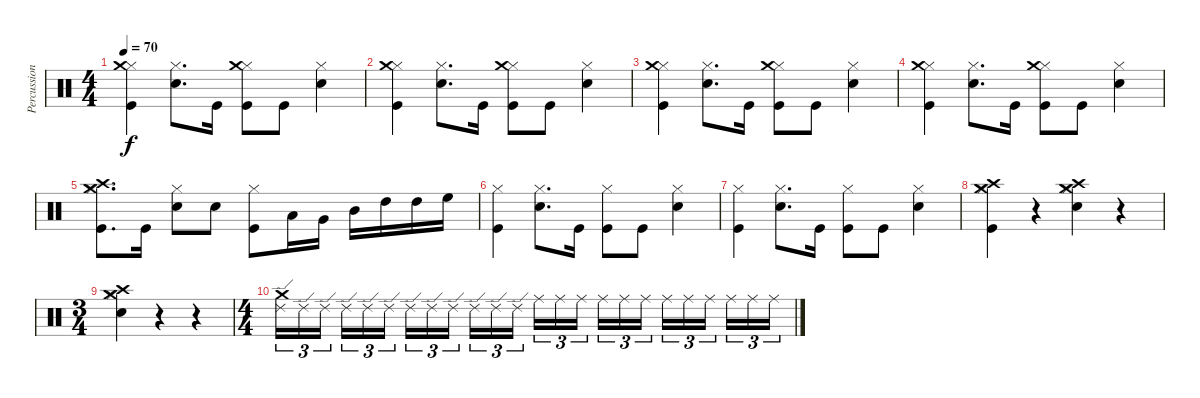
\track ("Percussion" "Percussion") {instrument percussion}
\staff {score}
\articulation defaults
\ts (4 4)
\tempo 70
\clef neutral
\ks c
("Kick (hit)" "Hi-Hat (closed)" "Crash medium (hit)").4{dy f} ("Electric Snare (hit)" "Hi-Hat (closed)").8{d} "Kick (hit)".16 ("Kick (hit)" "Hi-Hat (closed)" "Crash medium (hit)").8 "Kick (hit)".8 ("Electric Snare (hit)" "Hi-Hat (closed)").4 |
("Kick (hit)" "Hi-Hat (closed)" "Crash medium (hit)").4 ("Electric Snare (hit)" "Hi-Hat (closed)").8{d} "Kick (hit)".16 ("Kick (hit)" "Hi-Hat (closed)" "Crash medium (hit)").8 "Kick (hit)".8 ("Electric Snare (hit)" "Hi-Hat (closed)").4 |
("Kick (hit)" "Hi-Hat (closed)" "Crash medium (hit)").4 ("Electric Snare (hit)" "Hi-Hat (closed)").8{d} "Kick (hit)".16 ("Kick (hit)" "Hi-Hat (closed)" "Crash medium (hit)").8 "Kick (hit)".8 ("Electric Snare (hit)" "Hi-Hat (closed)").4 |
("Kick (hit)" "Hi-Hat (closed)" "Crash medium (hit)").4 ("Electric Snare (hit)" "Hi-Hat (closed)").8{d} "Kick (hit)".16 ("Kick (hit)" "Hi-Hat (closed)" "Crash medium (hit)").8 "Kick (hit)".8 ("Electric Snare (hit)" "Hi-Hat (closed)").4 |
("Kick (hit)" "Hi-Hat (closed)" "Crash high (hit)" "Crash medium (hit)").8{d} "Kick (hit)".16 ("Electric Snare (hit)" "Hi-Hat (closed)").8 "Electric Snare (hit)".8 ("Kick (hit)" "Hi-Hat (closed)").8 "Low Floor Tom (hit)".16 "Very Low Tom (hit)".16 "Mid Tom (hit)".16 "High Tom (hit)".16 "High Tom (hit)".16 "High Floor Tom (hit)".16 |
("Kick (hit)" "Hi-Hat (closed)").4 ("Electric Snare (hit)" "Hi-Hat (closed)").8{d} "Kick (hit)".16 ("Kick (hit)" "Hi-Hat (closed)").8 "Kick (hit)".8 ("Electric Snare (hit)" "Hi-Hat (closed)").4 |
("Kick (hit)" "Hi-Hat (closed)").4 ("Electric Snare (hit)" "Hi-Hat (closed)").8{d} "Kick (hit)".16 ("Kick (hit)" "Hi-Hat (closed)").8 "Kick (hit)".8 ("Electric Snare (hit)" "Hi-Hat (closed)").4 |
("Kick (hit)" "Hi-Hat (closed)" "Crash high (hit)" "Crash medium (hit)").4 r.4 ("Electric Snare (hit)" "Hi-Hat (closed)" "Crash high (hit)" "Crash medium (hit)").4 r.4 |
\ts (3 4)
("Electric Snare (hit)" "Hi-Hat (closed)" "Crash high (hit)" "Crash medium (hit)").4 r.4 r.4 |
\ts (4 4)
("Ride (edge) 2" "Crash medium (hit)").16{tu (3 2)} "Ride (edge) 2".16{tu (3 2)} "Ride (edge) 2".16{tu (3 2)} "Ride (edge) 2".16{tu (3 2)} "Ride (edge) 2".16{tu (3 2)} "Ride (edge) 2".16{tu (3 2)} "Ride (edge) 2".16{tu (3 2)} "Ride (edge) 2".16{tu (3 2)} "Ride (edge) 2".16{tu (3 2)} "Ride (edge) 2".16{tu (3 2)} "Ride (edge) 2".16{tu (3 2)} "Ride (edge) 2".16{tu (3 2)} "Ride (middle)".16{tu (3 2)} "Ride (middle)".16{tu (3 2)} "Ride (middle)".16{tu (3 2)} "Ride (middle)".16{tu (3 2)} "Ride (middle)".16{tu (3 2)} "Ride (middle)".16{tu (3 2)} "Ride (middle)".16{tu (3 2)} "Ride (middle)".16{tu (3 2)} "Ride (middle)".16{tu (3 2)} "Ride (middle)".16{tu (3 2)} "Ride (middle)".16{tu (3 2)} "Ride (middle)".16{tu (3 2)}
